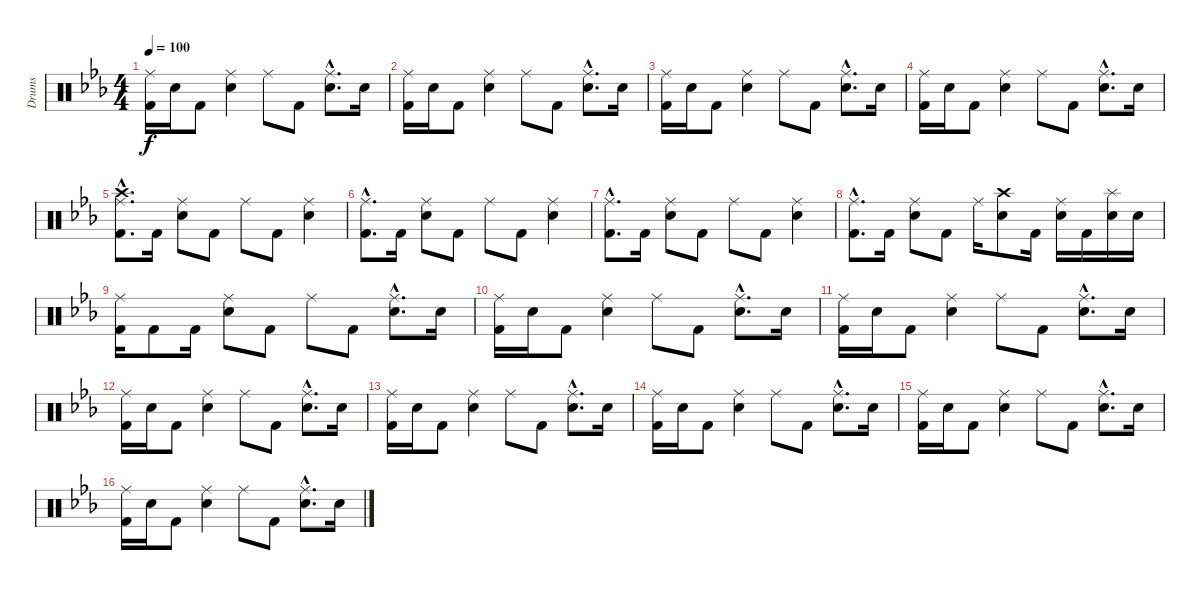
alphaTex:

\track ("Drums" "Drums") {instrument percussion}
\staff {score}
\articulation defaults
\ts (4 4)
\tempo 100
\clef neutral
\ks cminor
("Ride (middle)" "Kick (hit) 2").16{dy f} "Electric Snare (hit)".16 "Kick (hit) 2".8 ("Ride (middle)" "Electric Snare (hit)").4 "Ride (middle)".8 "Kick (hit) 2".8 ("Ride (middle)"{hac} "Electric Snare (hit)"{hac}).8{d} "Electric Snare (hit)".16 |
("Ride (middle)" "Kick (hit) 2").16 "Electric Snare (hit)".16 "Kick (hit) 2".8 ("Ride (middle)" "Electric Snare (hit)").4 "Ride (middle)".8 "Kick (hit) 2".8 ("Ride (middle)"{hac} "Electric Snare (hit)"{hac}).8{d} "Electric Snare (hit)".16 |
("Ride (middle)" "Kick (hit) 2").16 "Electric Snare (hit)".16 "Kick (hit) 2".8 ("Ride (middle)" "Electric Snare (hit)").4 "Ride (middle)".8 "Kick (hit) 2".8 ("Ride (middle)"{hac} "Electric Snare (hit)"{hac}).8{d} "Electric Snare (hit)".16 |
("Ride (middle)" "Kick (hit) 2").16 "Electric Snare (hit)".16 "Kick (hit) 2".8 ("Ride (middle)" "Electric Snare (hit)").4 "Ride (middle)".8 "Kick (hit) 2".8 ("Ride (middle)"{hac} "Electric Snare (hit)"{hac}).8{d} "Electric Snare (hit)".16 |
("Ride (middle)"{hac} "Crash high (hit)"{hac} "Kick (hit) 2"{hac}).8{d} "Kick (hit) 2".16 ("Ride (middle)" "Electric Snare (hit)").8 "Kick (hit) 2".8 "Ride (middle)".8 "Kick (hit) 2".8 ("Ride (middle)" "Electric Snare (hit)").4 |
("Ride (middle)"{hac} "Kick (hit) 2"{hac}).8{d} "Kick (hit) 2".16 ("Ride (middle)" "Electric Snare (hit)").8 "Kick (hit) 2".8 "Ride (middle)".8 "Kick (hit) 2".8 ("Ride (middle)" "Electric Snare (hit)").4 |
("Ride (middle)"{hac} "Kick (hit) 2"{hac}).8{d} "Kick (hit) 2".16 ("Ride (middle)" "Electric Snare (hit)").8 "Kick (hit) 2".8 "Ride (middle)".8 "Kick (hit) 2".8 ("Ride (middle)" "Electric Snare (hit)").4 |
("Ride (middle)"{hac} "Kick (hit) 2"{hac}).8{d} "Kick (hit) 2".16 ("Ride (middle)" "Electric Snare (hit)").8 "Kick (hit) 2".8 "Ride (middle)".16 ("Crash high (hit)" "Electric Snare (hit)").8 "Kick (hit) 2".16 ("Ride (middle)" "Electric Snare (hit)").16 "Kick (hit) 2".16 ("Splash (hit)" "Electric Snare (hit)").16 "Electric Snare (hit)".16 |
("Ride (middle)" "Kick (hit) 2").16 "Kick (hit) 2".8 "Kick (hit) 2".16 ("Ride (middle)" "Electric Snare (hit)").8 "Kick (hit) 2".8 "Ride (middle)".8 "Kick (hit) 2".8 ("Ride (middle)"{hac} "Electric Snare (hit)"{hac}).8{d} "Electric Snare (hit)".16 |
("Ride (middle)" "Kick (hit) 2").16 "Electric Snare (hit)".16 "Kick (hit) 2".8 ("Ride (middle)" "Electric Snare (hit)").4 "Ride (middle)".8 "Kick (hit) 2".8 ("Ride (middle)"{hac} "Electric Snare (hit)"{hac}).8{d} "Electric Snare (hit)".16 |
("Ride (middle)" "Kick (hit) 2").16 "Electric Snare (hit)".16 "Kick (hit) 2".8 ("Ride (middle)" "Electric Snare (hit)").4 "Ride (middle)".8 "Kick (hit) 2".8 ("Ride (middle)"{hac} "Electric Snare (hit)"{hac}).8{d} "Electric Snare (hit)".16 |
("Ride (middle)" "Kick (hit) 2").16 "Electric Snare (hit)".16 "Kick (hit) 2".8 ("Ride (middle)" "Electric Snare (hit)").4 "Ride (middle)".8 "Kick (hit) 2".8 ("Ride (middle)"{hac} "Electric Snare (hit)"{hac}).8{d} "Electric Snare (hit)".16 |
("Ride (middle)" "Kick (hit) 2").16 "Electric Snare (hit)".16 "Kick (hit) 2".8 ("Ride (middle)" "Electric Snare (hit)").4 "Ride (middle)".8 "Kick (hit) 2".8 ("Ride (middle)"{hac} "Electric Snare (hit)"{hac}).8{d} "Electric Snare (hit)".16 |
("Ride (middle)" "Kick (hit) 2").16 "Electric Snare (hit)".16 "Kick (hit) 2".8 ("Ride (middle)" "Electric Snare (hit)").4 "Ride (middle)".8 "Kick (hit) 2".8 ("Ride (middle)"{hac} "Electric Snare (hit)"{hac}).8{d} "Electric Snare (hit)".16 |
("Ride (middle)" "Kick (hit) 2").16 "Electric Snare (hit)".16 "Kick (hit) 2".8 ("Ride (middle)" "Electric Snare (hit)").4 "Ride (middle)".8 "Kick (hit) 2".8 ("Ride (middle)"{hac} "Electric Snare (hit)"{hac}).8{d} "Electric Snare (hit)".16 |
("Ride (middle)" "Kick (hit) 2").16 "Electric Snare (hit)".16 "Kick (hit) 2".8 ("Ride (middle)" "Electric Snare (hit)").4 "Ride (middle)".8 "Kick (hit) 2".8 ("Ride (middle)"{hac} "Electric Snare (hit)"{hac}).8{d} "Electric Snare (hit)".16
